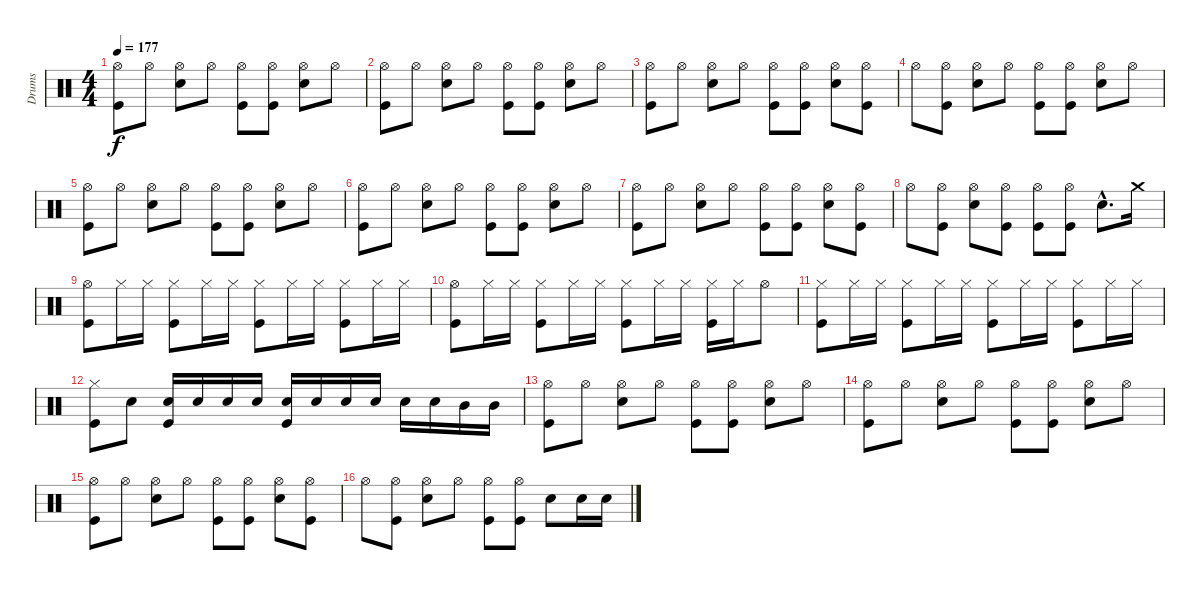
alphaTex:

\track ("Drums" "Drums") {instrument percussion}
\staff {score}
\articulation defaults
\ts (4 4)
\tempo 177
\clef neutral
\ks c
("Hi-Hat (open)" "Kick (hit)").8{dy f} "Hi-Hat (open)".8 ("Hi-Hat (open)" "Snare (hit) 2").8 "Hi-Hat (open)".8 ("Hi-Hat (open)" "Kick (hit)").8 ("Hi-Hat (open)" "Kick (hit)").8 ("Hi-Hat (open)" "Snare (hit) 2").8 "Hi-Hat (open)".8 |
("Hi-Hat (open)" "Kick (hit)").8 "Hi-Hat (open)".8 ("Hi-Hat (open)" "Snare (hit) 2").8 "Hi-Hat (open)".8 ("Hi-Hat (open)" "Kick (hit)").8 ("Hi-Hat (open)" "Kick (hit)").8 ("Hi-Hat (open)" "Snare (hit) 2").8 "Hi-Hat (open)".8 |
("Hi-Hat (open)" "Kick (hit)").8 "Hi-Hat (open)".8 ("Hi-Hat (open)" "Snare (hit) 2").8 "Hi-Hat (open)".8 ("Hi-Hat (open)" "Kick (hit)").8 ("Hi-Hat (open)" "Kick (hit)").8 ("Hi-Hat (open)" "Snare (hit) 2").8 ("Hi-Hat (open)" "Kick (hit)").8 |
"Hi-Hat (open)".8 ("Hi-Hat (open)" "Kick (hit)").8 ("Hi-Hat (open)" "Snare (hit) 2").8 "Hi-Hat (open)".8 ("Hi-Hat (open)" "Kick (hit)").8 ("Hi-Hat (open)" "Kick (hit)").8 ("Hi-Hat (open)" "Snare (hit) 2").8 "Hi-Hat (open)".8 |
("Hi-Hat (open)" "Kick (hit)").8 "Hi-Hat (open)".8 ("Hi-Hat (open)" "Snare (hit) 2").8 "Hi-Hat (open)".8 ("Hi-Hat (open)" "Kick (hit)").8 ("Hi-Hat (open)" "Kick (hit)").8 ("Hi-Hat (open)" "Snare (hit) 2").8 "Hi-Hat (open)".8 |
("Hi-Hat (open)" "Kick (hit)").8 "Hi-Hat (open)".8 ("Hi-Hat (open)" "Snare (hit) 2").8 "Hi-Hat (open)".8 ("Hi-Hat (open)" "Kick (hit)").8 ("Hi-Hat (open)" "Kick (hit)").8 ("Hi-Hat (open)" "Snare (hit) 2").8 "Hi-Hat (open)".8 |
("Hi-Hat (open)" "Kick (hit)").8 "Hi-Hat (open)".8 ("Hi-Hat (open)" "Snare (hit) 2").8 "Hi-Hat (open)".8 ("Hi-Hat (open)" "Kick (hit)").8 ("Hi-Hat (open)" "Kick (hit)").8 ("Hi-Hat (open)" "Snare (hit) 2").8 ("Hi-Hat (open)" "Kick (hit)").8 |
"Hi-Hat (open)".8 ("Hi-Hat (open)" "Kick (hit)").8 ("Hi-Hat (open)" "Snare (hit) 2").8 ("Hi-Hat (open)" "Kick (hit)").8 ("Hi-Hat (open)" "Kick (hit)").8 ("Hi-Hat (open)" "Kick (hit)").8 "Snare (hit) 2"{hac}.8{d} "Crash medium (hit)".16 |
("Hi-Hat (open)" "Kick (hit)").8 "Hi-Hat (closed)".16 "Hi-Hat (closed)".16 ("Hi-Hat (closed)" "Kick (hit)").8 "Hi-Hat (closed)".16 "Hi-Hat (closed)".16 ("Hi-Hat (closed)" "Kick (hit)").8 "Hi-Hat (closed)".16 "Hi-Hat (closed)".16 ("Hi-Hat (closed)" "Kick (hit)").8 "Hi-Hat (closed)".16 "Hi-Hat (closed)".16 |
("Hi-Hat (open)" "Kick (hit)").8 "Hi-Hat (closed)".16 "Hi-Hat (closed)".16 ("Hi-Hat (closed)" "Kick (hit)").8 "Hi-Hat (closed)".16 "Hi-Hat (closed)".16 ("Hi-Hat (closed)" "Kick (hit)").8 "Hi-Hat (closed)".16 "Hi-Hat (closed)".16 ("Hi-Hat (closed)" "Kick (hit)").16 "Hi-Hat (closed)".16 "Hi-Hat (open)".8 |
("Hi-Hat (closed)" "Kick (hit)").8 "Hi-Hat (closed)".16 "Hi-Hat (closed)".16 ("Hi-Hat (closed)" "Kick (hit)").8 "Hi-Hat (closed)".16 "Hi-Hat (closed)".16 ("Hi-Hat (closed)" "Kick (hit)").8 "Hi-Hat (closed)".16 "Hi-Hat (closed)".16 ("Hi-Hat (closed)" "Kick (hit)").8 "Hi-Hat (closed)".16 "Hi-Hat (closed)".16 |
("Hi-Hat (closed)" "Kick (hit)").8 "Snare (hit) 2".8 ("Snare (hit) 2" "Kick (hit)").16 "Snare (hit) 2".16 "Snare (hit) 2".16 "Snare (hit) 2".16 ("Snare (hit) 2" "Kick (hit)").16 "Snare (hit) 2".16 "Snare (hit) 2".16 "Snare (hit) 2".16 "Snare (hit) 2".16 "Snare (hit) 2".16 "Mid Tom (hit)".16 "Mid Tom (hit)".16 |
("Hi-Hat (open)" "Kick (hit)").8 "Hi-Hat (open)".8 ("Hi-Hat (open)" "Snare (hit) 2").8 "Hi-Hat (open)".8 ("Hi-Hat (open)" "Kick (hit)").8 ("Hi-Hat (open)" "Kick (hit)").8 ("Hi-Hat (open)" "Snare (hit) 2").8 "Hi-Hat (open)".8 |
("Hi-Hat (open)" "Kick (hit)").8 "Hi-Hat (open)".8 ("Hi-Hat (open)" "Snare (hit) 2").8 "Hi-Hat (open)".8 ("Hi-Hat (open)" "Kick (hit)").8 ("Hi-Hat (open)" "Kick (hit)").8 ("Hi-Hat (open)" "Snare (hit) 2").8 "Hi-Hat (open)".8 |
("Hi-Hat (open)" "Kick (hit)").8 "Hi-Hat (open)".8 ("Hi-Hat (open)" "Snare (hit) 2").8 "Hi-Hat (open)".8 ("Hi-Hat (open)" "Kick (hit)").8 ("Hi-Hat (open)" "Kick (hit)").8 ("Hi-Hat (open)" "Snare (hit) 2").8 ("Hi-Hat (open)" "Kick (hit)").8 |
"Hi-Hat (open)".8 ("Hi-Hat (open)" "Kick (hit)").8 ("Hi-Hat (open)" "Snare (hit) 2").8 "Hi-Hat (open)".8 ("Hi-Hat (open)" "Kick (hit)").8 ("Hi-Hat (open)" "Kick (hit)").8 "Snare (hit) 2".8 "Snare (hit) 2".16 "Snare (hit) 2".16
